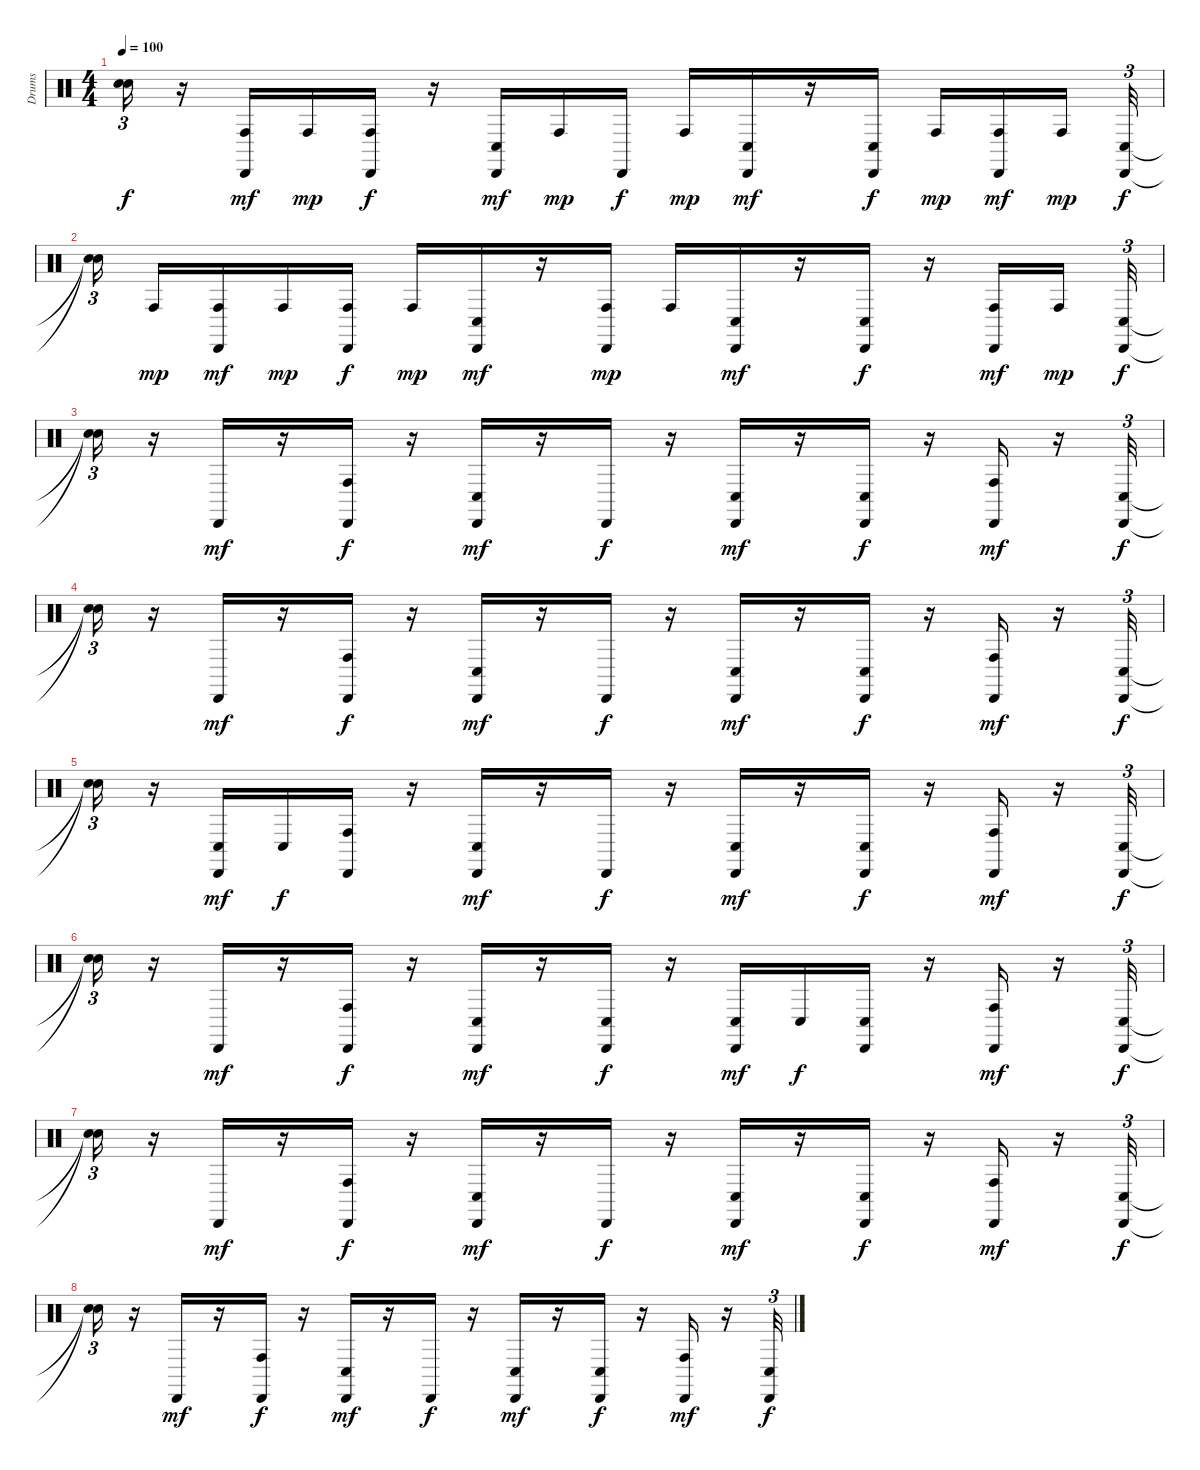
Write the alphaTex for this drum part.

\track ("Drums" "Drums") {instrument percussion}
\staff {score}
\articulation defaults
\ts (4 4)
\tempo 100
\clef neutral
\ks c
("Snare (hit)"{t} "Snare (hit)"{t}).16{tu (3 2) dy f} r.16 ("Conga high (hit)" "Cabasa (hit)").16{dy mf} "Conga high (hit)".16{dy mp} ("Conga high (hit)" "Cabasa (hit)").16{dy f} r.16 ("Conga low (hit)" "Cabasa (hit)").16{dy mf} "Conga high (hit)".16{dy mp} "Cabasa (hit)".16{dy f} "Conga high (hit)".16{dy mp} ("Conga low (hit)" "Cabasa (hit)").16{dy mf} r.16 ("Conga low (hit)" "Cabasa (hit)").16{dy f} "Conga high (hit)".16{dy mp} ("Conga high (hit)" "Cabasa (hit)").16{dy mf} "Conga high (hit)".16{dy mp} ("Conga low (hit)" "Cabasa (hit)").32{tu (3 2) dy f} |
("Snare (hit)"{t} "Snare (hit)"{t}).16{tu (3 2)} "Conga high (hit)".16{dy mp} ("Conga high (hit)" "Cabasa (hit)").16{dy mf} "Conga high (hit)".16{dy mp} ("Conga high (hit)" "Cabasa (hit)").16{dy f} "Conga high (hit)".16{dy mp} ("Conga low (hit)" "Cabasa (hit)").16{dy mf} r.16 ("Conga high (hit)" "Cabasa (hit)").16{dy mp} "Conga high (hit)".16 ("Conga low (hit)" "Cabasa (hit)").16{dy mf} r.16 ("Conga low (hit)" "Cabasa (hit)").16{dy f} r.16 ("Conga high (hit)" "Cabasa (hit)").16{dy mf} "Conga high (hit)".16{dy mp} ("Conga low (hit)" "Cabasa (hit)").32{tu (3 2) dy f} |
("Snare (hit)"{t} "Snare (hit)"{t}).16{tu (3 2)} r.16 "Cabasa (hit)".16{dy mf} r.16 ("Conga high (hit)" "Cabasa (hit)").16{dy f} r.16 ("Conga low (hit)" "Cabasa (hit)").16{dy mf} r.16 "Cabasa (hit)".16{dy f} r.16 ("Conga low (hit)" "Cabasa (hit)").16{dy mf} r.16 ("Conga low (hit)" "Cabasa (hit)").16{dy f} r.16 ("Conga high (hit)" "Cabasa (hit)").16{dy mf} r.16 ("Conga low (hit)" "Cabasa (hit)").32{tu (3 2) dy f} |
("Snare (hit)"{t} "Snare (hit)"{t}).16{tu (3 2)} r.16 "Cabasa (hit)".16{dy mf} r.16 ("Conga high (hit)" "Cabasa (hit)").16{dy f} r.16 ("Conga low (hit)" "Cabasa (hit)").16{dy mf} r.16 "Cabasa (hit)".16{dy f} r.16 ("Conga low (hit)" "Cabasa (hit)").16{dy mf} r.16 ("Conga low (hit)" "Cabasa (hit)").16{dy f} r.16 ("Conga high (hit)" "Cabasa (hit)").16{dy mf} r.16 ("Conga low (hit)" "Cabasa (hit)").32{tu (3 2) dy f} |
("Snare (hit)"{t} "Snare (hit)"{t}).16{tu (3 2)} r.16 ("Conga low (hit)" "Cabasa (hit)").16{dy mf} "Conga low (hit)".16{dy f} ("Conga high (hit)" "Cabasa (hit)").16 r.16 ("Conga low (hit)" "Cabasa (hit)").16{dy mf} r.16 "Cabasa (hit)".16{dy f} r.16 ("Conga low (hit)" "Cabasa (hit)").16{dy mf} r.16 ("Conga low (hit)" "Cabasa (hit)").16{dy f} r.16 ("Conga high (hit)" "Cabasa (hit)").16{dy mf} r.16 ("Conga low (hit)" "Cabasa (hit)").32{tu (3 2) dy f} |
("Snare (hit)"{t} "Snare (hit)"{t}).16{tu (3 2)} r.16 "Cabasa (hit)".16{dy mf} r.16 ("Conga high (hit)" "Cabasa (hit)").16{dy f} r.16 ("Conga low (hit)" "Cabasa (hit)").16{dy mf} r.16 ("Conga low (hit)" "Cabasa (hit)").16{dy f} r.16 ("Conga low (hit)" "Cabasa (hit)").16{dy mf} "Conga low (hit)".16{dy f} ("Conga low (hit)" "Cabasa (hit)").16 r.16 ("Conga high (hit)" "Cabasa (hit)").16{dy mf} r.16 ("Conga low (hit)" "Cabasa (hit)").32{tu (3 2) dy f} |
("Snare (hit)"{t} "Snare (hit)"{t}).16{tu (3 2)} r.16 "Cabasa (hit)".16{dy mf} r.16 ("Conga high (hit)" "Cabasa (hit)").16{dy f} r.16 ("Conga low (hit)" "Cabasa (hit)").16{dy mf} r.16 "Cabasa (hit)".16{dy f} r.16 ("Conga low (hit)" "Cabasa (hit)").16{dy mf} r.16 ("Conga low (hit)" "Cabasa (hit)").16{dy f} r.16 ("Conga high (hit)" "Cabasa (hit)").16{dy mf} r.16 ("Conga low (hit)" "Cabasa (hit)").32{tu (3 2) dy f} |
("Snare (hit)"{t} "Snare (hit)"{t}).16{tu (3 2)} r.16 "Cabasa (hit)".16{dy mf} r.16 ("Conga high (hit)" "Cabasa (hit)").16{dy f} r.16 ("Conga low (hit)" "Cabasa (hit)").16{dy mf} r.16 "Cabasa (hit)".16{dy f} r.16 ("Conga low (hit)" "Cabasa (hit)").16{dy mf} r.16 ("Conga low (hit)" "Cabasa (hit)").16{dy f} r.16 ("Conga high (hit)" "Cabasa (hit)").16{dy mf} r.16 ("Conga low (hit)" "Cabasa (hit)").32{tu (3 2) dy f}
